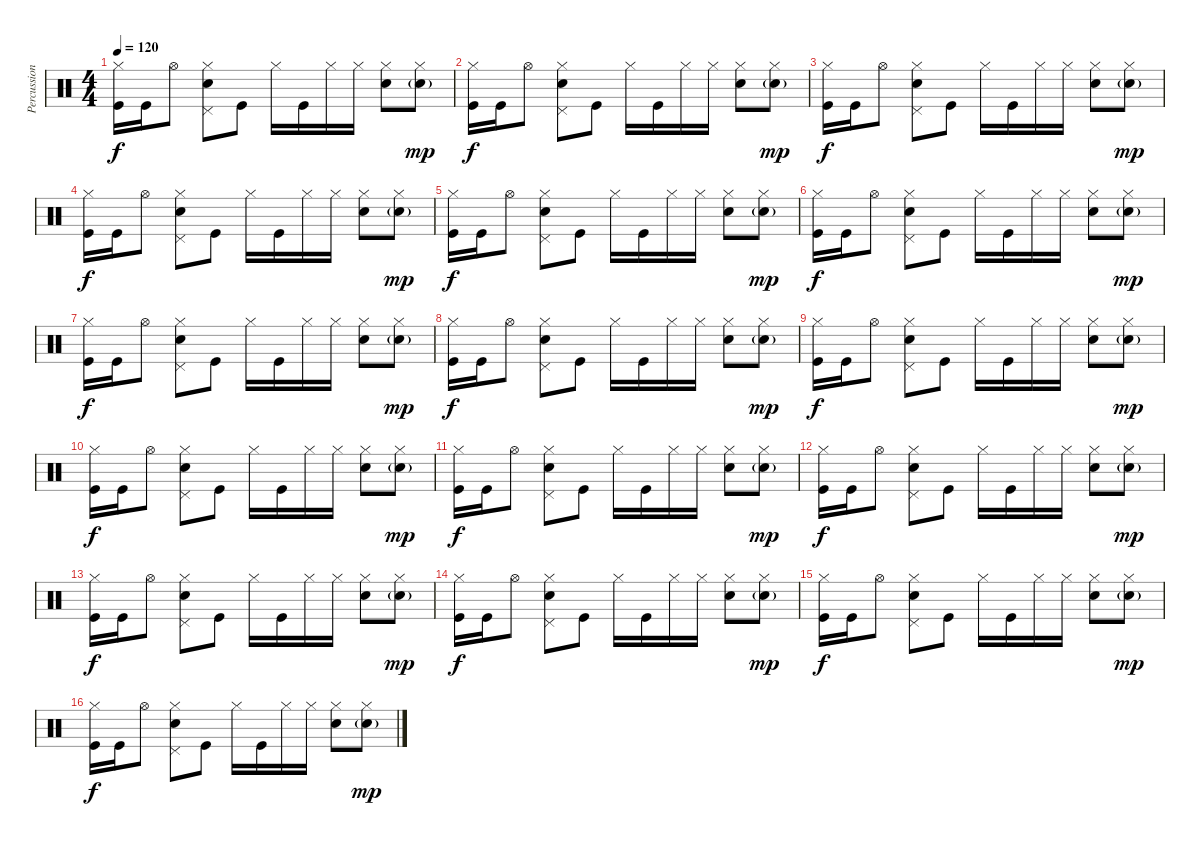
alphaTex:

\track ("Percussion" "Percussion") {instrument percussion}
\staff {score}
\articulation defaults
\ts (4 4)
\tempo 120
\clef neutral
\ks c
("Hi-Hat (closed)" "Kick (hit)").16{dy f} "Kick (hit)".16 "Hi-Hat (open)".8 ("Pedal Hi-Hat (hit)" "Hi-Hat (closed)" "Snare (hit) 2").8 "Kick (hit)".8 "Hi-Hat (closed)".16 "Kick (hit)".16 "Hi-Hat (closed)".16 "Hi-Hat (closed)".16 ("Hi-Hat (closed)" "Snare (hit) 2").8 ("Hi-Hat (closed)" "Snare (hit) 2"{g}).8{dy mp} |
("Hi-Hat (closed)" "Kick (hit)").16{dy f} "Kick (hit)".16 "Hi-Hat (open)".8 ("Pedal Hi-Hat (hit)" "Hi-Hat (closed)" "Snare (hit) 2").8 "Kick (hit)".8 "Hi-Hat (closed)".16 "Kick (hit)".16 "Hi-Hat (closed)".16 "Hi-Hat (closed)".16 ("Hi-Hat (closed)" "Snare (hit) 2").8 ("Hi-Hat (closed)" "Snare (hit) 2"{g}).8{dy mp} |
("Hi-Hat (closed)" "Kick (hit)").16{dy f} "Kick (hit)".16 "Hi-Hat (open)".8 ("Pedal Hi-Hat (hit)" "Hi-Hat (closed)" "Snare (hit) 2").8 "Kick (hit)".8 "Hi-Hat (closed)".16 "Kick (hit)".16 "Hi-Hat (closed)".16 "Hi-Hat (closed)".16 ("Hi-Hat (closed)" "Snare (hit) 2").8 ("Hi-Hat (closed)" "Snare (hit) 2"{g}).8{dy mp} |
("Hi-Hat (closed)" "Kick (hit)").16{dy f} "Kick (hit)".16 "Hi-Hat (open)".8 ("Pedal Hi-Hat (hit)" "Hi-Hat (closed)" "Snare (hit) 2").8 "Kick (hit)".8 "Hi-Hat (closed)".16 "Kick (hit)".16 "Hi-Hat (closed)".16 "Hi-Hat (closed)".16 ("Hi-Hat (closed)" "Snare (hit) 2").8 ("Hi-Hat (closed)" "Snare (hit) 2"{g}).8{dy mp} |
("Hi-Hat (closed)" "Kick (hit)").16{dy f} "Kick (hit)".16 "Hi-Hat (open)".8 ("Pedal Hi-Hat (hit)" "Hi-Hat (closed)" "Snare (hit) 2").8 "Kick (hit)".8 "Hi-Hat (closed)".16 "Kick (hit)".16 "Hi-Hat (closed)".16 "Hi-Hat (closed)".16 ("Hi-Hat (closed)" "Snare (hit) 2").8 ("Hi-Hat (closed)" "Snare (hit) 2"{g}).8{dy mp} |
("Hi-Hat (closed)" "Kick (hit)").16{dy f} "Kick (hit)".16 "Hi-Hat (open)".8 ("Pedal Hi-Hat (hit)" "Hi-Hat (closed)" "Snare (hit) 2").8 "Kick (hit)".8 "Hi-Hat (closed)".16 "Kick (hit)".16 "Hi-Hat (closed)".16 "Hi-Hat (closed)".16 ("Hi-Hat (closed)" "Snare (hit) 2").8 ("Hi-Hat (closed)" "Snare (hit) 2"{g}).8{dy mp} |
("Hi-Hat (closed)" "Kick (hit)").16{dy f} "Kick (hit)".16 "Hi-Hat (open)".8 ("Pedal Hi-Hat (hit)" "Hi-Hat (closed)" "Snare (hit) 2").8 "Kick (hit)".8 "Hi-Hat (closed)".16 "Kick (hit)".16 "Hi-Hat (closed)".16 "Hi-Hat (closed)".16 ("Hi-Hat (closed)" "Snare (hit) 2").8 ("Hi-Hat (closed)" "Snare (hit) 2"{g}).8{dy mp} |
("Hi-Hat (closed)" "Kick (hit)").16{dy f} "Kick (hit)".16 "Hi-Hat (open)".8 ("Pedal Hi-Hat (hit)" "Hi-Hat (closed)" "Snare (hit) 2").8 "Kick (hit)".8 "Hi-Hat (closed)".16 "Kick (hit)".16 "Hi-Hat (closed)".16 "Hi-Hat (closed)".16 ("Hi-Hat (closed)" "Snare (hit) 2").8 ("Hi-Hat (closed)" "Snare (hit) 2"{g}).8{dy mp} |
("Hi-Hat (closed)" "Kick (hit)").16{dy f} "Kick (hit)".16 "Hi-Hat (open)".8 ("Pedal Hi-Hat (hit)" "Hi-Hat (closed)" "Snare (hit) 2").8 "Kick (hit)".8 "Hi-Hat (closed)".16 "Kick (hit)".16 "Hi-Hat (closed)".16 "Hi-Hat (closed)".16 ("Hi-Hat (closed)" "Snare (hit) 2").8 ("Hi-Hat (closed)" "Snare (hit) 2"{g}).8{dy mp} |
("Hi-Hat (closed)" "Kick (hit)").16{dy f} "Kick (hit)".16 "Hi-Hat (open)".8 ("Pedal Hi-Hat (hit)" "Hi-Hat (closed)" "Snare (hit) 2").8 "Kick (hit)".8 "Hi-Hat (closed)".16 "Kick (hit)".16 "Hi-Hat (closed)".16 "Hi-Hat (closed)".16 ("Hi-Hat (closed)" "Snare (hit) 2").8 ("Hi-Hat (closed)" "Snare (hit) 2"{g}).8{dy mp} |
("Hi-Hat (closed)" "Kick (hit)").16{dy f} "Kick (hit)".16 "Hi-Hat (open)".8 ("Pedal Hi-Hat (hit)" "Hi-Hat (closed)" "Snare (hit) 2").8 "Kick (hit)".8 "Hi-Hat (closed)".16 "Kick (hit)".16 "Hi-Hat (closed)".16 "Hi-Hat (closed)".16 ("Hi-Hat (closed)" "Snare (hit) 2").8 ("Hi-Hat (closed)" "Snare (hit) 2"{g}).8{dy mp} |
("Hi-Hat (closed)" "Kick (hit)").16{dy f} "Kick (hit)".16 "Hi-Hat (open)".8 ("Pedal Hi-Hat (hit)" "Hi-Hat (closed)" "Snare (hit) 2").8 "Kick (hit)".8 "Hi-Hat (closed)".16 "Kick (hit)".16 "Hi-Hat (closed)".16 "Hi-Hat (closed)".16 ("Hi-Hat (closed)" "Snare (hit) 2").8 ("Hi-Hat (closed)" "Snare (hit) 2"{g}).8{dy mp} |
("Hi-Hat (closed)" "Kick (hit)").16{dy f} "Kick (hit)".16 "Hi-Hat (open)".8 ("Pedal Hi-Hat (hit)" "Hi-Hat (closed)" "Snare (hit) 2").8 "Kick (hit)".8 "Hi-Hat (closed)".16 "Kick (hit)".16 "Hi-Hat (closed)".16 "Hi-Hat (closed)".16 ("Hi-Hat (closed)" "Snare (hit) 2").8 ("Hi-Hat (closed)" "Snare (hit) 2"{g}).8{dy mp} |
("Hi-Hat (closed)" "Kick (hit)").16{dy f} "Kick (hit)".16 "Hi-Hat (open)".8 ("Pedal Hi-Hat (hit)" "Hi-Hat (closed)" "Snare (hit) 2").8 "Kick (hit)".8 "Hi-Hat (closed)".16 "Kick (hit)".16 "Hi-Hat (closed)".16 "Hi-Hat (closed)".16 ("Hi-Hat (closed)" "Snare (hit) 2").8 ("Hi-Hat (closed)" "Snare (hit) 2"{g}).8{dy mp} |
("Hi-Hat (closed)" "Kick (hit)").16{dy f} "Kick (hit)".16 "Hi-Hat (open)".8 ("Pedal Hi-Hat (hit)" "Hi-Hat (closed)" "Snare (hit) 2").8 "Kick (hit)".8 "Hi-Hat (closed)".16 "Kick (hit)".16 "Hi-Hat (closed)".16 "Hi-Hat (closed)".16 ("Hi-Hat (closed)" "Snare (hit) 2").8 ("Hi-Hat (closed)" "Snare (hit) 2"{g}).8{dy mp} |
("Hi-Hat (closed)" "Kick (hit)").16{dy f} "Kick (hit)".16 "Hi-Hat (open)".8 ("Pedal Hi-Hat (hit)" "Hi-Hat (closed)" "Snare (hit) 2").8 "Kick (hit)".8 "Hi-Hat (closed)".16 "Kick (hit)".16 "Hi-Hat (closed)".16 "Hi-Hat (closed)".16 ("Hi-Hat (closed)" "Snare (hit) 2").8 ("Hi-Hat (closed)" "Snare (hit) 2"{g}).8{dy mp}
